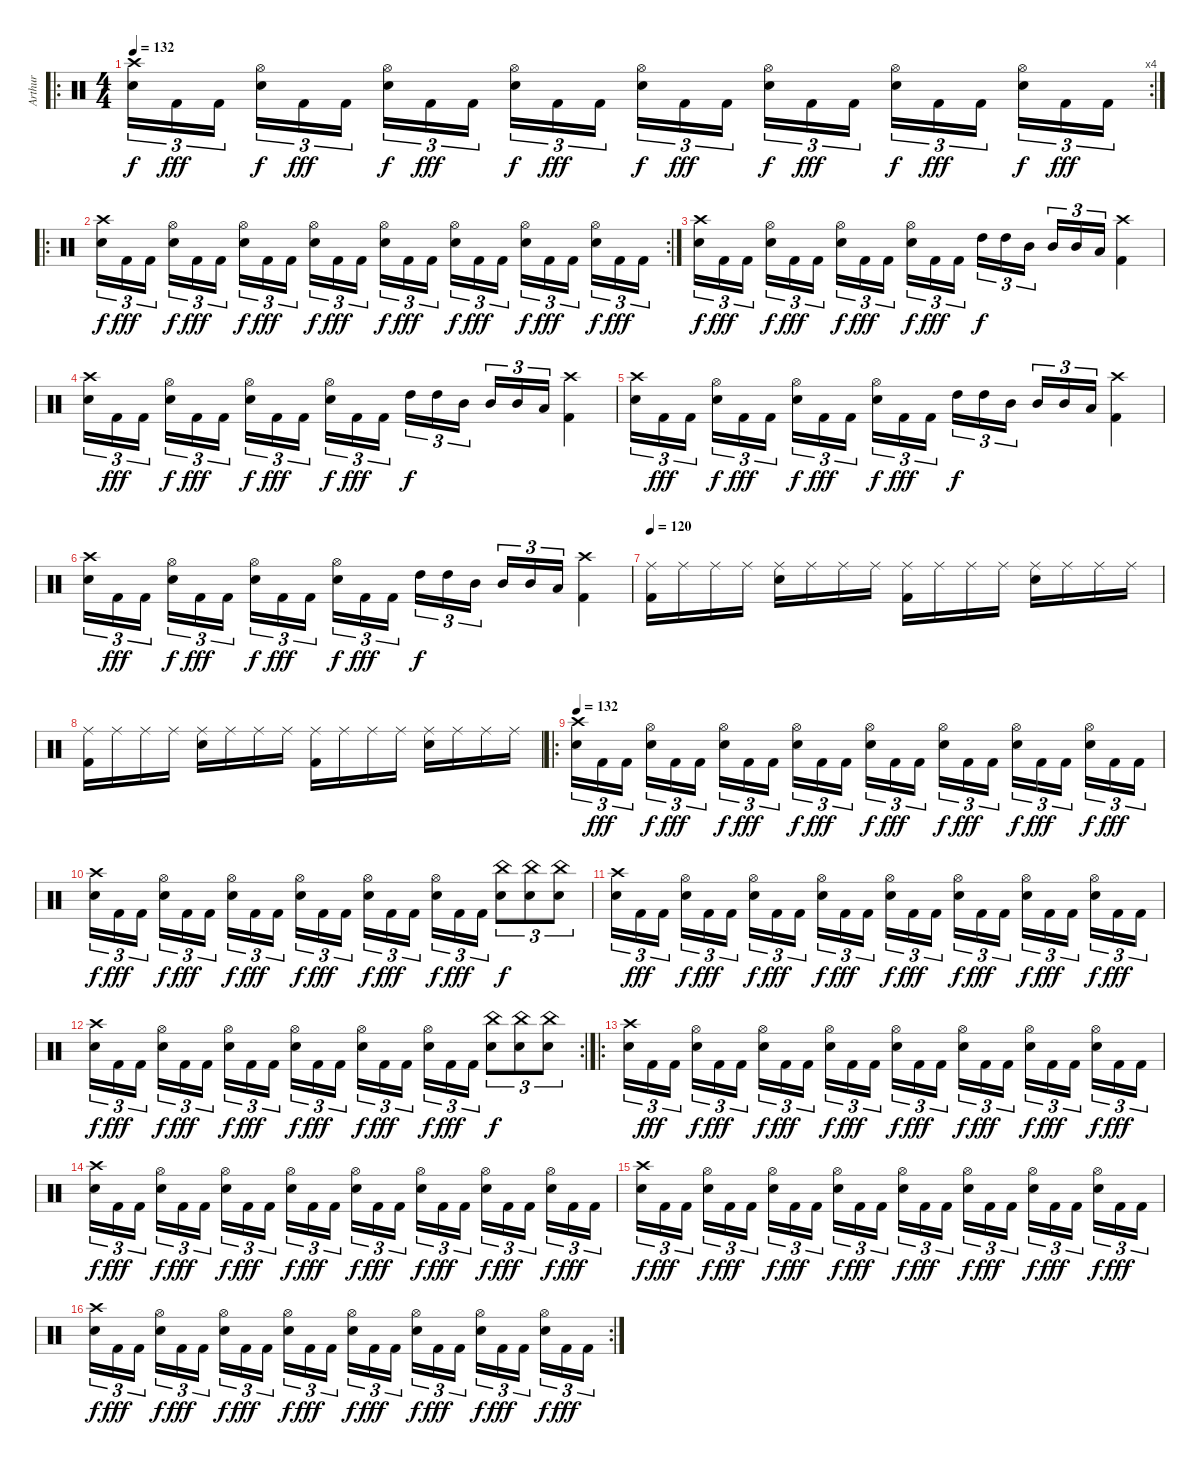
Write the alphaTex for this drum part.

\track ("Arthur" "Arthur") {instrument percussion}
\staff {score}
\articulation defaults
\ro
\rc 4
\ts (4 4)
\tempo 132
\clef neutral
\ks c
("Crash high (hit)" "Electric Snare (hit)").16{tu (3 2) dy f} "Kick (hit) 2".16{tu (3 2) dy fff} "Kick (hit) 2".16{tu (3 2)} ("Hi-Hat (open)" "Electric Snare (hit)").16{tu (3 2) dy f} "Kick (hit) 2".16{tu (3 2) dy fff} "Kick (hit) 2".16{tu (3 2)} ("Hi-Hat (open)" "Electric Snare (hit)").16{tu (3 2) dy f} "Kick (hit) 2".16{tu (3 2) dy fff} "Kick (hit) 2".16{tu (3 2)} ("Hi-Hat (open)" "Electric Snare (hit)").16{tu (3 2) dy f} "Kick (hit) 2".16{tu (3 2) dy fff} "Kick (hit) 2".16{tu (3 2)} ("Hi-Hat (open)" "Electric Snare (hit)").16{tu (3 2) dy f} "Kick (hit) 2".16{tu (3 2) dy fff} "Kick (hit) 2".16{tu (3 2)} ("Hi-Hat (open)" "Electric Snare (hit)").16{tu (3 2) dy f} "Kick (hit) 2".16{tu (3 2) dy fff} "Kick (hit) 2".16{tu (3 2)} ("Hi-Hat (open)" "Electric Snare (hit)").16{tu (3 2) dy f} "Kick (hit) 2".16{tu (3 2) dy fff} "Kick (hit) 2".16{tu (3 2)} ("Hi-Hat (open)" "Electric Snare (hit)").16{tu (3 2) dy f} "Kick (hit) 2".16{tu (3 2) dy fff} "Kick (hit) 2".16{tu (3 2)} |
\ro
\rc 2
("Crash high (hit)" "Electric Snare (hit)").16{tu (3 2) dy f} "Kick (hit) 2".16{tu (3 2) dy fff} "Kick (hit) 2".16{tu (3 2)} ("Hi-Hat (open)" "Electric Snare (hit)").16{tu (3 2) dy f} "Kick (hit) 2".16{tu (3 2) dy fff} "Kick (hit) 2".16{tu (3 2)} ("Hi-Hat (open)" "Electric Snare (hit)").16{tu (3 2) dy f} "Kick (hit) 2".16{tu (3 2) dy fff} "Kick (hit) 2".16{tu (3 2)} ("Hi-Hat (open)" "Electric Snare (hit)").16{tu (3 2) dy f} "Kick (hit) 2".16{tu (3 2) dy fff} "Kick (hit) 2".16{tu (3 2)} ("Hi-Hat (open)" "Electric Snare (hit)").16{tu (3 2) dy f} "Kick (hit) 2".16{tu (3 2) dy fff} "Kick (hit) 2".16{tu (3 2)} ("Hi-Hat (open)" "Electric Snare (hit)").16{tu (3 2) dy f} "Kick (hit) 2".16{tu (3 2) dy fff} "Kick (hit) 2".16{tu (3 2)} ("Hi-Hat (open)" "Electric Snare (hit)").16{tu (3 2) dy f} "Kick (hit) 2".16{tu (3 2) dy fff} "Kick (hit) 2".16{tu (3 2)} ("Hi-Hat (open)" "Electric Snare (hit)").16{tu (3 2) dy f} "Kick (hit) 2".16{tu (3 2) dy fff} "Kick (hit) 2".16{tu (3 2)} |
("Crash high (hit)" "Electric Snare (hit)").16{tu (3 2) dy f} "Kick (hit) 2".16{tu (3 2) dy fff} "Kick (hit) 2".16{tu (3 2)} ("Hi-Hat (open)" "Electric Snare (hit)").16{tu (3 2) dy f} "Kick (hit) 2".16{tu (3 2) dy fff} "Kick (hit) 2".16{tu (3 2)} ("Hi-Hat (open)" "Electric Snare (hit)").16{tu (3 2) dy f} "Kick (hit) 2".16{tu (3 2) dy fff} "Kick (hit) 2".16{tu (3 2)} ("Hi-Hat (open)" "Electric Snare (hit)").16{tu (3 2) dy f} "Kick (hit) 2".16{tu (3 2) dy fff} "Kick (hit) 2".16{tu (3 2)} "High Tom (hit)".16{tu (3 2) dy f} "High Tom (hit)".16{tu (3 2)} "Mid Tom (hit)".16{tu (3 2)} "Mid Tom (hit)".16{tu (3 2)} "Mid Tom (hit)".16{tu (3 2)} "Low Tom (hit)".16{tu (3 2)} ("Crash high (hit)" "Kick (hit) 2").4 |
("Crash high (hit)" "Electric Snare (hit)").16{tu (3 2)} "Kick (hit) 2".16{tu (3 2) dy fff} "Kick (hit) 2".16{tu (3 2)} ("Hi-Hat (open)" "Electric Snare (hit)").16{tu (3 2) dy f} "Kick (hit) 2".16{tu (3 2) dy fff} "Kick (hit) 2".16{tu (3 2)} ("Hi-Hat (open)" "Electric Snare (hit)").16{tu (3 2) dy f} "Kick (hit) 2".16{tu (3 2) dy fff} "Kick (hit) 2".16{tu (3 2)} ("Hi-Hat (open)" "Electric Snare (hit)").16{tu (3 2) dy f} "Kick (hit) 2".16{tu (3 2) dy fff} "Kick (hit) 2".16{tu (3 2)} "High Tom (hit)".16{tu (3 2) dy f} "High Tom (hit)".16{tu (3 2)} "Mid Tom (hit)".16{tu (3 2)} "Mid Tom (hit)".16{tu (3 2)} "Mid Tom (hit)".16{tu (3 2)} "Low Tom (hit)".16{tu (3 2)} ("Crash high (hit)" "Kick (hit) 2").4 |
("Crash high (hit)" "Electric Snare (hit)").16{tu (3 2)} "Kick (hit) 2".16{tu (3 2) dy fff} "Kick (hit) 2".16{tu (3 2)} ("Hi-Hat (open)" "Electric Snare (hit)").16{tu (3 2) dy f} "Kick (hit) 2".16{tu (3 2) dy fff} "Kick (hit) 2".16{tu (3 2)} ("Hi-Hat (open)" "Electric Snare (hit)").16{tu (3 2) dy f} "Kick (hit) 2".16{tu (3 2) dy fff} "Kick (hit) 2".16{tu (3 2)} ("Hi-Hat (open)" "Electric Snare (hit)").16{tu (3 2) dy f} "Kick (hit) 2".16{tu (3 2) dy fff} "Kick (hit) 2".16{tu (3 2)} "High Tom (hit)".16{tu (3 2) dy f} "High Tom (hit)".16{tu (3 2)} "Mid Tom (hit)".16{tu (3 2)} "Mid Tom (hit)".16{tu (3 2)} "Mid Tom (hit)".16{tu (3 2)} "Low Tom (hit)".16{tu (3 2)} ("Crash high (hit)" "Kick (hit) 2").4 |
("Crash high (hit)" "Electric Snare (hit)").16{tu (3 2)} "Kick (hit) 2".16{tu (3 2) dy fff} "Kick (hit) 2".16{tu (3 2)} ("Hi-Hat (open)" "Electric Snare (hit)").16{tu (3 2) dy f} "Kick (hit) 2".16{tu (3 2) dy fff} "Kick (hit) 2".16{tu (3 2)} ("Hi-Hat (open)" "Electric Snare (hit)").16{tu (3 2) dy f} "Kick (hit) 2".16{tu (3 2) dy fff} "Kick (hit) 2".16{tu (3 2)} ("Hi-Hat (open)" "Electric Snare (hit)").16{tu (3 2) dy f} "Kick (hit) 2".16{tu (3 2) dy fff} "Kick (hit) 2".16{tu (3 2)} "High Tom (hit)".16{tu (3 2) dy f} "High Tom (hit)".16{tu (3 2)} "Mid Tom (hit)".16{tu (3 2)} "Mid Tom (hit)".16{tu (3 2)} "Mid Tom (hit)".16{tu (3 2)} "Low Tom (hit)".16{tu (3 2)} ("Crash high (hit)" "Kick (hit) 2").4 |
\tempo 120
("Ride (middle)" "Kick (hit) 2").16 "Ride (middle)".16 "Ride (middle)".16 "Ride (middle)".16 ("Ride (middle)" "Electric Snare (hit)").16 "Ride (middle)".16 "Ride (middle)".16 "Ride (middle)".16 ("Ride (middle)" "Kick (hit) 2").16 "Ride (middle)".16 "Ride (middle)".16 "Ride (middle)".16 ("Ride (middle)" "Electric Snare (hit)").16 "Ride (middle)".16 "Ride (middle)".16 "Ride (middle)".16 |
("Ride (middle)" "Kick (hit) 2").16 "Ride (middle)".16 "Ride (middle)".16 "Ride (middle)".16 ("Ride (middle)" "Electric Snare (hit)").16 "Ride (middle)".16 "Ride (middle)".16 "Ride (middle)".16 ("Ride (middle)" "Kick (hit) 2").16 "Ride (middle)".16 "Ride (middle)".16 "Ride (middle)".16 ("Ride (middle)" "Electric Snare (hit)").16 "Ride (middle)".16 "Ride (middle)".16 "Ride (middle)".16 |
\ro
\tempo 132
("Crash high (hit)" "Electric Snare (hit)").16{tu (3 2)} "Kick (hit) 2".16{tu (3 2) dy fff} "Kick (hit) 2".16{tu (3 2)} ("Hi-Hat (open)" "Electric Snare (hit)").16{tu (3 2) dy f} "Kick (hit) 2".16{tu (3 2) dy fff} "Kick (hit) 2".16{tu (3 2)} ("Hi-Hat (open)" "Electric Snare (hit)").16{tu (3 2) dy f} "Kick (hit) 2".16{tu (3 2) dy fff} "Kick (hit) 2".16{tu (3 2)} ("Hi-Hat (open)" "Electric Snare (hit)").16{tu (3 2) dy f} "Kick (hit) 2".16{tu (3 2) dy fff} "Kick (hit) 2".16{tu (3 2)} ("Hi-Hat (open)" "Electric Snare (hit)").16{tu (3 2) dy f} "Kick (hit) 2".16{tu (3 2) dy fff} "Kick (hit) 2".16{tu (3 2)} ("Hi-Hat (open)" "Electric Snare (hit)").16{tu (3 2) dy f} "Kick (hit) 2".16{tu (3 2) dy fff} "Kick (hit) 2".16{tu (3 2)} ("Hi-Hat (open)" "Electric Snare (hit)").16{tu (3 2) dy f} "Kick (hit) 2".16{tu (3 2) dy fff} "Kick (hit) 2".16{tu (3 2)} ("Hi-Hat (open)" "Electric Snare (hit)").16{tu (3 2) dy f} "Kick (hit) 2".16{tu (3 2) dy fff} "Kick (hit) 2".16{tu (3 2)} |
("Crash high (hit)" "Electric Snare (hit)").16{tu (3 2) dy f} "Kick (hit) 2".16{tu (3 2) dy fff} "Kick (hit) 2".16{tu (3 2)} ("Hi-Hat (open)" "Electric Snare (hit)").16{tu (3 2) dy f} "Kick (hit) 2".16{tu (3 2) dy fff} "Kick (hit) 2".16{tu (3 2)} ("Hi-Hat (open)" "Electric Snare (hit)").16{tu (3 2) dy f} "Kick (hit) 2".16{tu (3 2) dy fff} "Kick (hit) 2".16{tu (3 2)} ("Hi-Hat (open)" "Electric Snare (hit)").16{tu (3 2) dy f} "Kick (hit) 2".16{tu (3 2) dy fff} "Kick (hit) 2".16{tu (3 2)} ("Hi-Hat (open)" "Electric Snare (hit)").16{tu (3 2) dy f} "Kick (hit) 2".16{tu (3 2) dy fff} "Kick (hit) 2".16{tu (3 2)} ("Hi-Hat (open)" "Electric Snare (hit)").16{tu (3 2) dy f} "Kick (hit) 2".16{tu (3 2) dy fff} "Kick (hit) 2".16{tu (3 2)} ("China (hit)" "Electric Snare (hit)").8{tu (3 2) dy f} ("China (hit)" "Electric Snare (hit)").8{tu (3 2)} ("China (hit)" "Electric Snare (hit)").8{tu (3 2)} |
("Crash high (hit)" "Electric Snare (hit)").16{tu (3 2)} "Kick (hit) 2".16{tu (3 2) dy fff} "Kick (hit) 2".16{tu (3 2)} ("Hi-Hat (open)" "Electric Snare (hit)").16{tu (3 2) dy f} "Kick (hit) 2".16{tu (3 2) dy fff} "Kick (hit) 2".16{tu (3 2)} ("Hi-Hat (open)" "Electric Snare (hit)").16{tu (3 2) dy f} "Kick (hit) 2".16{tu (3 2) dy fff} "Kick (hit) 2".16{tu (3 2)} ("Hi-Hat (open)" "Electric Snare (hit)").16{tu (3 2) dy f} "Kick (hit) 2".16{tu (3 2) dy fff} "Kick (hit) 2".16{tu (3 2)} ("Hi-Hat (open)" "Electric Snare (hit)").16{tu (3 2) dy f} "Kick (hit) 2".16{tu (3 2) dy fff} "Kick (hit) 2".16{tu (3 2)} ("Hi-Hat (open)" "Electric Snare (hit)").16{tu (3 2) dy f} "Kick (hit) 2".16{tu (3 2) dy fff} "Kick (hit) 2".16{tu (3 2)} ("Hi-Hat (open)" "Electric Snare (hit)").16{tu (3 2) dy f} "Kick (hit) 2".16{tu (3 2) dy fff} "Kick (hit) 2".16{tu (3 2)} ("Hi-Hat (open)" "Electric Snare (hit)").16{tu (3 2) dy f} "Kick (hit) 2".16{tu (3 2) dy fff} "Kick (hit) 2".16{tu (3 2)} |
\rc 2
("Crash high (hit)" "Electric Snare (hit)").16{tu (3 2) dy f} "Kick (hit) 2".16{tu (3 2) dy fff} "Kick (hit) 2".16{tu (3 2)} ("Hi-Hat (open)" "Electric Snare (hit)").16{tu (3 2) dy f} "Kick (hit) 2".16{tu (3 2) dy fff} "Kick (hit) 2".16{tu (3 2)} ("Hi-Hat (open)" "Electric Snare (hit)").16{tu (3 2) dy f} "Kick (hit) 2".16{tu (3 2) dy fff} "Kick (hit) 2".16{tu (3 2)} ("Hi-Hat (open)" "Electric Snare (hit)").16{tu (3 2) dy f} "Kick (hit) 2".16{tu (3 2) dy fff} "Kick (hit) 2".16{tu (3 2)} ("Hi-Hat (open)" "Electric Snare (hit)").16{tu (3 2) dy f} "Kick (hit) 2".16{tu (3 2) dy fff} "Kick (hit) 2".16{tu (3 2)} ("Hi-Hat (open)" "Electric Snare (hit)").16{tu (3 2) dy f} "Kick (hit) 2".16{tu (3 2) dy fff} "Kick (hit) 2".16{tu (3 2)} ("China (hit)" "Electric Snare (hit)").8{tu (3 2) dy f} ("China (hit)" "Electric Snare (hit)").8{tu (3 2)} ("China (hit)" "Electric Snare (hit)").8{tu (3 2)} |
\ro
("Crash high (hit)" "Electric Snare (hit)").16{tu (3 2)} "Kick (hit) 2".16{tu (3 2) dy fff} "Kick (hit) 2".16{tu (3 2)} ("Hi-Hat (open)" "Electric Snare (hit)").16{tu (3 2) dy f} "Kick (hit) 2".16{tu (3 2) dy fff} "Kick (hit) 2".16{tu (3 2)} ("Hi-Hat (open)" "Electric Snare (hit)").16{tu (3 2) dy f} "Kick (hit) 2".16{tu (3 2) dy fff} "Kick (hit) 2".16{tu (3 2)} ("Hi-Hat (open)" "Electric Snare (hit)").16{tu (3 2) dy f} "Kick (hit) 2".16{tu (3 2) dy fff} "Kick (hit) 2".16{tu (3 2)} ("Hi-Hat (open)" "Electric Snare (hit)").16{tu (3 2) dy f} "Kick (hit) 2".16{tu (3 2) dy fff} "Kick (hit) 2".16{tu (3 2)} ("Hi-Hat (open)" "Electric Snare (hit)").16{tu (3 2) dy f} "Kick (hit) 2".16{tu (3 2) dy fff} "Kick (hit) 2".16{tu (3 2)} ("Hi-Hat (open)" "Electric Snare (hit)").16{tu (3 2) dy f} "Kick (hit) 2".16{tu (3 2) dy fff} "Kick (hit) 2".16{tu (3 2)} ("Hi-Hat (open)" "Electric Snare (hit)").16{tu (3 2) dy f} "Kick (hit) 2".16{tu (3 2) dy fff} "Kick (hit) 2".16{tu (3 2)} |
("Crash high (hit)" "Electric Snare (hit)").16{tu (3 2) dy f} "Kick (hit) 2".16{tu (3 2) dy fff} "Kick (hit) 2".16{tu (3 2)} ("Hi-Hat (open)" "Electric Snare (hit)").16{tu (3 2) dy f} "Kick (hit) 2".16{tu (3 2) dy fff} "Kick (hit) 2".16{tu (3 2)} ("Hi-Hat (open)" "Electric Snare (hit)").16{tu (3 2) dy f} "Kick (hit) 2".16{tu (3 2) dy fff} "Kick (hit) 2".16{tu (3 2)} ("Hi-Hat (open)" "Electric Snare (hit)").16{tu (3 2) dy f} "Kick (hit) 2".16{tu (3 2) dy fff} "Kick (hit) 2".16{tu (3 2)} ("Hi-Hat (open)" "Electric Snare (hit)").16{tu (3 2) dy f} "Kick (hit) 2".16{tu (3 2) dy fff} "Kick (hit) 2".16{tu (3 2)} ("Hi-Hat (open)" "Electric Snare (hit)").16{tu (3 2) dy f} "Kick (hit) 2".16{tu (3 2) dy fff} "Kick (hit) 2".16{tu (3 2)} ("Hi-Hat (open)" "Electric Snare (hit)").16{tu (3 2) dy f} "Kick (hit) 2".16{tu (3 2) dy fff} "Kick (hit) 2".16{tu (3 2)} ("Hi-Hat (open)" "Electric Snare (hit)").16{tu (3 2) dy f} "Kick (hit) 2".16{tu (3 2) dy fff} "Kick (hit) 2".16{tu (3 2)} |
("Crash high (hit)" "Electric Snare (hit)").16{tu (3 2) dy f} "Kick (hit) 2".16{tu (3 2) dy fff} "Kick (hit) 2".16{tu (3 2)} ("Hi-Hat (open)" "Electric Snare (hit)").16{tu (3 2) dy f} "Kick (hit) 2".16{tu (3 2) dy fff} "Kick (hit) 2".16{tu (3 2)} ("Hi-Hat (open)" "Electric Snare (hit)").16{tu (3 2) dy f} "Kick (hit) 2".16{tu (3 2) dy fff} "Kick (hit) 2".16{tu (3 2)} ("Hi-Hat (open)" "Electric Snare (hit)").16{tu (3 2) dy f} "Kick (hit) 2".16{tu (3 2) dy fff} "Kick (hit) 2".16{tu (3 2)} ("Hi-Hat (open)" "Electric Snare (hit)").16{tu (3 2) dy f} "Kick (hit) 2".16{tu (3 2) dy fff} "Kick (hit) 2".16{tu (3 2)} ("Hi-Hat (open)" "Electric Snare (hit)").16{tu (3 2) dy f} "Kick (hit) 2".16{tu (3 2) dy fff} "Kick (hit) 2".16{tu (3 2)} ("Hi-Hat (open)" "Electric Snare (hit)").16{tu (3 2) dy f} "Kick (hit) 2".16{tu (3 2) dy fff} "Kick (hit) 2".16{tu (3 2)} ("Hi-Hat (open)" "Electric Snare (hit)").16{tu (3 2) dy f} "Kick (hit) 2".16{tu (3 2) dy fff} "Kick (hit) 2".16{tu (3 2)} |
\rc 2
("Crash high (hit)" "Electric Snare (hit)").16{tu (3 2) dy f} "Kick (hit) 2".16{tu (3 2) dy fff} "Kick (hit) 2".16{tu (3 2)} ("Hi-Hat (open)" "Electric Snare (hit)").16{tu (3 2) dy f} "Kick (hit) 2".16{tu (3 2) dy fff} "Kick (hit) 2".16{tu (3 2)} ("Hi-Hat (open)" "Electric Snare (hit)").16{tu (3 2) dy f} "Kick (hit) 2".16{tu (3 2) dy fff} "Kick (hit) 2".16{tu (3 2)} ("Hi-Hat (open)" "Electric Snare (hit)").16{tu (3 2) dy f} "Kick (hit) 2".16{tu (3 2) dy fff} "Kick (hit) 2".16{tu (3 2)} ("Hi-Hat (open)" "Electric Snare (hit)").16{tu (3 2) dy f} "Kick (hit) 2".16{tu (3 2) dy fff} "Kick (hit) 2".16{tu (3 2)} ("Hi-Hat (open)" "Electric Snare (hit)").16{tu (3 2) dy f} "Kick (hit) 2".16{tu (3 2) dy fff} "Kick (hit) 2".16{tu (3 2)} ("Hi-Hat (open)" "Electric Snare (hit)").16{tu (3 2) dy f} "Kick (hit) 2".16{tu (3 2) dy fff} "Kick (hit) 2".16{tu (3 2)} ("Hi-Hat (open)" "Electric Snare (hit)").16{tu (3 2) dy f} "Kick (hit) 2".16{tu (3 2) dy fff} "Kick (hit) 2".16{tu (3 2)}
